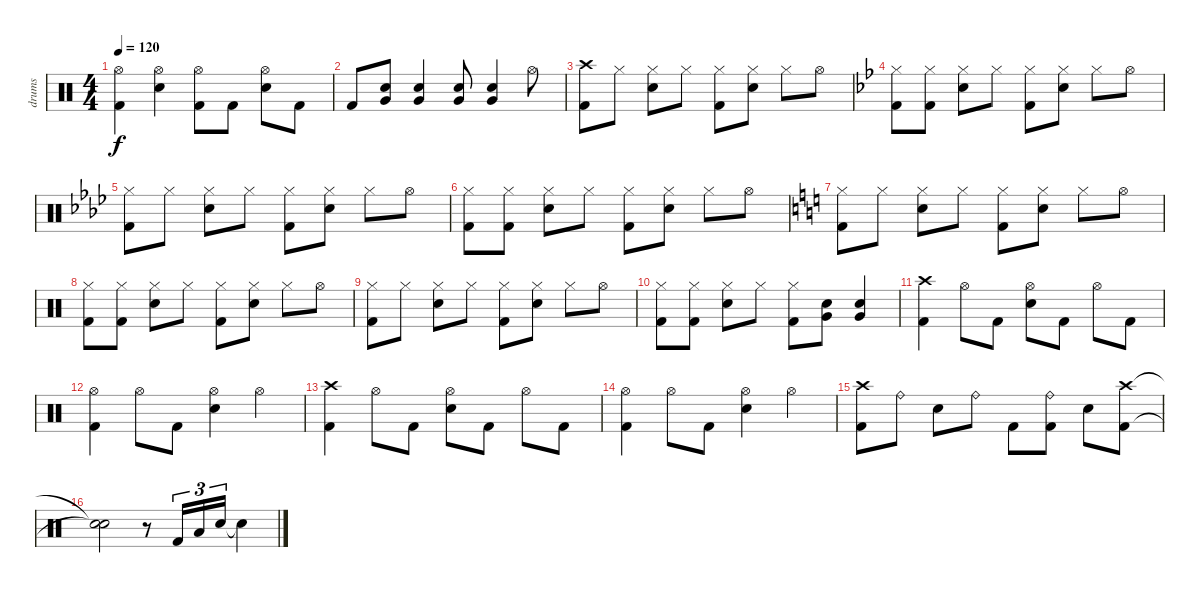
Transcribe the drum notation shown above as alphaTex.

\track ("drums" "drums") {instrument percussion}
\staff {score}
\articulation defaults
\ts (4 4)
\tempo 120
\clef neutral
\ks c
("Hi-Hat (open)" "Kick (hit) 2").4{dy f} ("Hi-Hat (open)" "Snare (hit) 2").4 ("Hi-Hat (open)" "Kick (hit) 2").8 "Kick (hit) 2".8 ("Hi-Hat (open)" "Snare (hit) 2").8 "Kick (hit) 2".8 |
"Kick (hit) 2".8 ("Very Low Tom (hit)" "Snare (hit) 2").8 ("Very Low Tom (hit)" "Snare (hit) 2").4 ("Very Low Tom (hit)" "Snare (hit) 2").8 ("Very Low Tom (hit)" "Snare (hit) 2").4 "Hi-Hat (open)".8 |
("Crash high (hit)" "Kick (hit) 2").8 "Hi-Hat (closed)".8 ("Hi-Hat (closed)" "Snare (hit) 2").8 "Hi-Hat (closed)".8 ("Hi-Hat (closed)" "Kick (hit) 2").8 ("Hi-Hat (closed)" "Snare (hit) 2").8 "Hi-Hat (closed)".8 "Hi-Hat (open)".8 |
\ks bb
("Hi-Hat (closed)" "Kick (hit) 2").8 ("Hi-Hat (closed)" "Kick (hit) 2").8 ("Hi-Hat (closed)" "Snare (hit) 2").8 "Hi-Hat (closed)".8 ("Hi-Hat (closed)" "Kick (hit) 2").8 ("Hi-Hat (closed)" "Snare (hit) 2").8 "Hi-Hat (closed)".8 "Hi-Hat (open)".8 |
\ks ab
("Hi-Hat (closed)" "Kick (hit) 2").8 "Hi-Hat (closed)".8 ("Hi-Hat (closed)" "Snare (hit) 2").8 "Hi-Hat (closed)".8 ("Hi-Hat (closed)" "Kick (hit) 2").8 ("Hi-Hat (closed)" "Snare (hit) 2").8 "Hi-Hat (closed)".8 "Hi-Hat (open)".8 |
("Hi-Hat (closed)" "Kick (hit) 2").8 ("Hi-Hat (closed)" "Kick (hit) 2").8 ("Hi-Hat (closed)" "Snare (hit) 2").8 "Hi-Hat (closed)".8 ("Hi-Hat (closed)" "Kick (hit) 2").8 ("Hi-Hat (closed)" "Snare (hit) 2").8 "Hi-Hat (closed)".8 "Hi-Hat (open)".8 |
\ks c
("Hi-Hat (closed)" "Kick (hit) 2").8 "Hi-Hat (closed)".8 ("Hi-Hat (closed)" "Snare (hit) 2").8 "Hi-Hat (closed)".8 ("Hi-Hat (closed)" "Kick (hit) 2").8 ("Hi-Hat (closed)" "Snare (hit) 2").8 "Hi-Hat (closed)".8 "Hi-Hat (open)".8 |
("Hi-Hat (closed)" "Kick (hit) 2").8 ("Hi-Hat (closed)" "Kick (hit) 2").8 ("Hi-Hat (closed)" "Snare (hit) 2").8 "Hi-Hat (closed)".8 ("Hi-Hat (closed)" "Kick (hit) 2").8 ("Hi-Hat (closed)" "Snare (hit) 2").8 "Hi-Hat (closed)".8 "Hi-Hat (open)".8 |
("Hi-Hat (closed)" "Kick (hit) 2").8 "Hi-Hat (closed)".8 ("Hi-Hat (closed)" "Snare (hit) 2").8 "Hi-Hat (closed)".8 ("Hi-Hat (closed)" "Kick (hit) 2").8 ("Hi-Hat (closed)" "Snare (hit) 2").8 "Hi-Hat (closed)".8 "Hi-Hat (open)".8 |
("Hi-Hat (closed)" "Kick (hit) 2").8 ("Hi-Hat (closed)" "Kick (hit) 2").8 ("Hi-Hat (closed)" "Snare (hit) 2").8 "Hi-Hat (closed)".8 ("Hi-Hat (closed)" "Kick (hit) 2").8 ("Very Low Tom (hit)" "Snare (hit) 2").8 ("Very Low Tom (hit)" "Snare (hit) 2").4 |
("Crash high (hit)" "Kick (hit) 2").4 "Hi-Hat (open)".8 "Kick (hit) 2".8 ("Hi-Hat (open)" "Snare (hit) 2").8 "Kick (hit) 2".8 "Hi-Hat (open)".8 "Kick (hit) 2".8 |
("Hi-Hat (open)" "Kick (hit) 2").4 "Hi-Hat (open)".8 "Kick (hit) 2".8 ("Hi-Hat (open)" "Snare (hit) 2").4 "Hi-Hat (open)".4 |
("Crash high (hit)" "Kick (hit) 2").4 "Hi-Hat (open)".8 "Kick (hit) 2".8 ("Hi-Hat (open)" "Snare (hit) 2").8 "Kick (hit) 2".8 "Hi-Hat (open)".8 "Kick (hit) 2".8 |
("Hi-Hat (open)" "Kick (hit) 2").4 "Hi-Hat (open)".8 "Kick (hit) 2".8 ("Hi-Hat (open)" "Snare (hit) 2").4 "Hi-Hat (open)".4 |
("Crash high (hit)" "Kick (hit) 2").8 "Ride (bell)".8 "Snare (hit) 2".8 "Ride (bell)".8 "Kick (hit) 2".8 ("Ride (bell)" "Kick (hit) 2").8 "Snare (hit) 2".8 ("Crash high (hit)" "Kick (hit) 2").8 |
("Snare (hit)"{t} "Snare (hit)"{t}).2 r.8 "Kick (hit) 2".16{tu (3 2)} "Low Floor Tom (hit)".16{tu (3 2)} "Snare (hit) 2".16{tu (3 2)} "Snare (hit)"{t}.4
